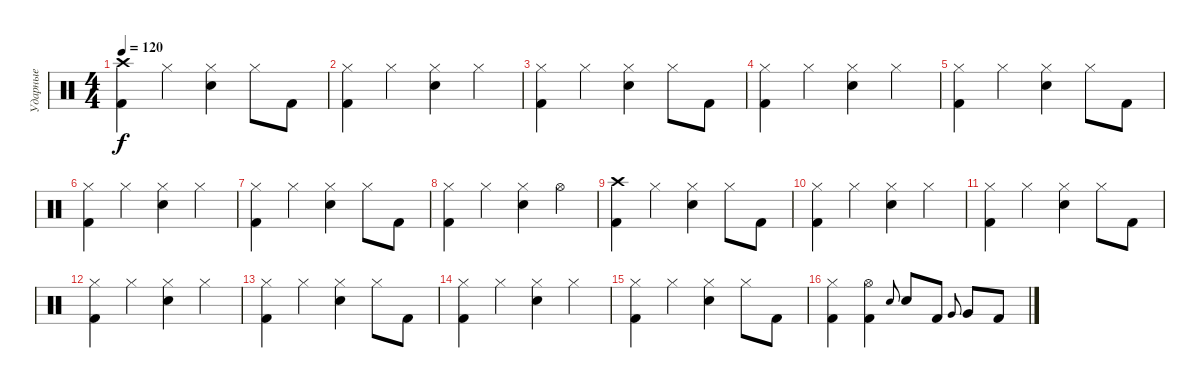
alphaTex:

\track ("Ударные" "Ударные") {instrument percussion}
\staff {score}
\articulation defaults
\ts (4 4)
\tempo 120
\clef neutral
\ks c
("Crash high (hit)" "Kick (hit) 2").4{dy f} "Hi-Hat (closed)".4 ("Hi-Hat (closed)" "Snare (hit) 2").4 "Hi-Hat (closed)".8 "Kick (hit) 2".8 |
("Hi-Hat (closed)" "Kick (hit) 2").4 "Hi-Hat (closed)".4 ("Hi-Hat (closed)" "Snare (hit) 2").4 "Hi-Hat (closed)".4 |
("Hi-Hat (closed)" "Kick (hit) 2").4 "Hi-Hat (closed)".4 ("Hi-Hat (closed)" "Snare (hit) 2").4 "Hi-Hat (closed)".8 "Kick (hit) 2".8 |
("Hi-Hat (closed)" "Kick (hit) 2").4 "Hi-Hat (closed)".4 ("Hi-Hat (closed)" "Snare (hit) 2").4 "Hi-Hat (closed)".4 |
("Hi-Hat (closed)" "Kick (hit) 2").4 "Hi-Hat (closed)".4 ("Hi-Hat (closed)" "Snare (hit) 2").4 "Hi-Hat (closed)".8 "Kick (hit) 2".8 |
("Hi-Hat (closed)" "Kick (hit) 2").4 "Hi-Hat (closed)".4 ("Hi-Hat (closed)" "Snare (hit) 2").4 "Hi-Hat (closed)".4 |
("Hi-Hat (closed)" "Kick (hit) 2").4 "Hi-Hat (closed)".4 ("Hi-Hat (closed)" "Snare (hit) 2").4 "Hi-Hat (closed)".8 "Kick (hit) 2".8 |
("Hi-Hat (closed)" "Kick (hit) 2").4 "Hi-Hat (closed)".4 ("Hi-Hat (closed)" "Snare (hit) 2").4 "Hi-Hat (open)".4 |
("Crash high (hit)" "Kick (hit) 2").4 "Hi-Hat (closed)".4 ("Hi-Hat (closed)" "Snare (hit) 2").4 "Hi-Hat (closed)".8 "Kick (hit) 2".8 |
("Hi-Hat (closed)" "Kick (hit) 2").4 "Hi-Hat (closed)".4 ("Hi-Hat (closed)" "Snare (hit) 2").4 "Hi-Hat (closed)".4 |
("Hi-Hat (closed)" "Kick (hit) 2").4 "Hi-Hat (closed)".4 ("Hi-Hat (closed)" "Snare (hit) 2").4 "Hi-Hat (closed)".8 "Kick (hit) 2".8 |
("Hi-Hat (closed)" "Kick (hit) 2").4 "Hi-Hat (closed)".4 ("Hi-Hat (closed)" "Snare (hit) 2").4 "Hi-Hat (closed)".4 |
("Hi-Hat (closed)" "Kick (hit) 2").4 "Hi-Hat (closed)".4 ("Hi-Hat (closed)" "Snare (hit) 2").4 "Hi-Hat (closed)".8 "Kick (hit) 2".8 |
("Hi-Hat (closed)" "Kick (hit) 2").4 "Hi-Hat (closed)".4 ("Hi-Hat (closed)" "Snare (hit) 2").4 "Hi-Hat (closed)".4 |
("Hi-Hat (closed)" "Kick (hit) 2").4 "Hi-Hat (closed)".4 ("Hi-Hat (closed)" "Snare (hit) 2").4 "Hi-Hat (closed)".8 "Kick (hit) 2".8 |
("Hi-Hat (closed)" "Kick (hit) 2").4 ("Hi-Hat (open)" "Kick (hit) 2").4 "Snare (hit) 2".8{gr onbeat} "Snare (hit) 2".8 "Kick (hit) 2".8 "Very Low Tom (hit)".8{gr onbeat} "Very Low Tom (hit)".8 "Kick (hit) 2".8
